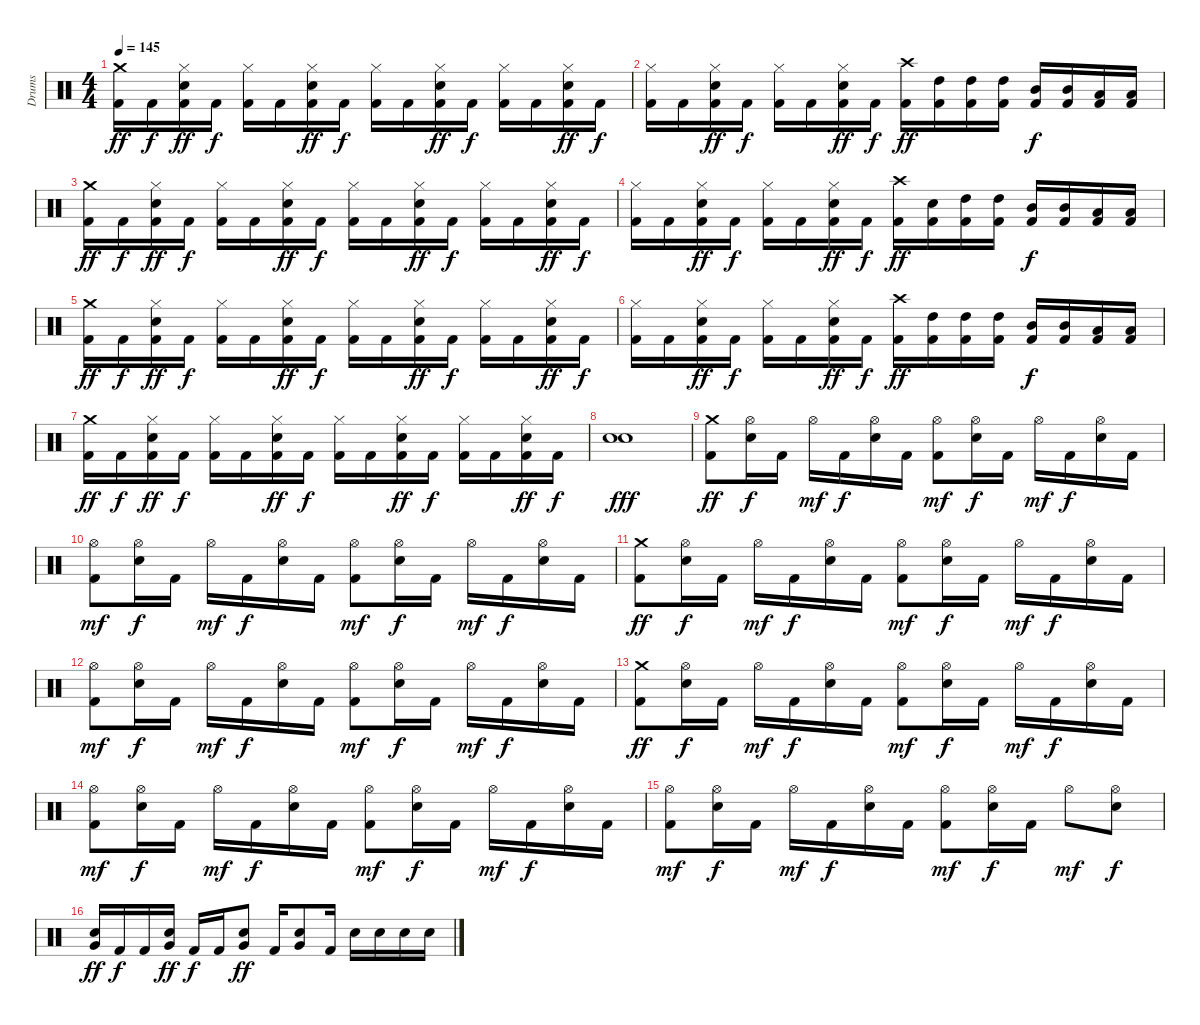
\track ("Drums" "Drums") {instrument percussion}
\staff {score}
\articulation defaults
\ts (4 4)
\tempo 145
\clef neutral
\ks c
("Crash medium (hit)" "Kick (hit) 2").16{dy ff} "Kick (hit) 2".16{dy f} ("Snare (hit) 2" "Hi-Hat (closed)" "Kick (hit) 2").16{dy ff} "Kick (hit) 2".16{dy f} ("Hi-Hat (closed)" "Kick (hit) 2").16 "Kick (hit) 2".16 ("Snare (hit) 2" "Hi-Hat (closed)" "Kick (hit) 2").16{dy ff} "Kick (hit) 2".16{dy f} ("Hi-Hat (closed)" "Kick (hit) 2").16 "Kick (hit) 2".16 ("Snare (hit) 2" "Hi-Hat (closed)" "Kick (hit) 2").16{dy ff} "Kick (hit) 2".16{dy f} ("Hi-Hat (closed)" "Kick (hit) 2").16 "Kick (hit) 2".16 ("Snare (hit) 2" "Hi-Hat (closed)" "Kick (hit) 2").16{dy ff} "Kick (hit) 2".16{dy f} |
("Hi-Hat (closed)" "Kick (hit) 2").16 "Kick (hit) 2".16 ("Hi-Hat (closed)" "Snare (hit) 2" "Kick (hit) 2").16{dy ff} "Kick (hit) 2".16{dy f} ("Hi-Hat (closed)" "Kick (hit) 2").16 "Kick (hit) 2".16 ("Hi-Hat (closed)" "Snare (hit) 2" "Kick (hit) 2").16{dy ff} "Kick (hit) 2".16{dy f} ("Crash high (hit)" "Kick (hit) 2").16{dy ff} ("High Tom (hit)" "Kick (hit) 2").16 ("High Tom (hit)" "Kick (hit) 2").16 ("High Tom (hit)" "Kick (hit) 2").16 ("Mid Tom (hit)" "Kick (hit) 2").16{dy f} ("Mid Tom (hit)" "Kick (hit) 2").16 ("Low Tom (hit)" "Kick (hit) 2").16 ("Low Tom (hit)" "Kick (hit) 2").16 |
("Crash medium (hit)" "Kick (hit) 2").16{dy ff} "Kick (hit) 2".16{dy f} ("Hi-Hat (closed)" "Snare (hit) 2" "Kick (hit) 2").16{dy ff} "Kick (hit) 2".16{dy f} ("Hi-Hat (closed)" "Kick (hit) 2").16 "Kick (hit) 2".16 ("Hi-Hat (closed)" "Snare (hit) 2" "Kick (hit) 2").16{dy ff} "Kick (hit) 2".16{dy f} ("Hi-Hat (closed)" "Kick (hit) 2").16 "Kick (hit) 2".16 ("Hi-Hat (closed)" "Snare (hit) 2" "Kick (hit) 2").16{dy ff} "Kick (hit) 2".16{dy f} ("Hi-Hat (closed)" "Kick (hit) 2").16 "Kick (hit) 2".16 ("Hi-Hat (closed)" "Snare (hit) 2" "Kick (hit) 2").16{dy ff} "Kick (hit) 2".16{dy f} |
("Hi-Hat (closed)" "Kick (hit) 2").16 "Kick (hit) 2".16 ("Hi-Hat (closed)" "Snare (hit) 2" "Kick (hit) 2").16{dy ff} "Kick (hit) 2".16{dy f} ("Hi-Hat (closed)" "Kick (hit) 2").16 "Kick (hit) 2".16 ("Hi-Hat (closed)" "Snare (hit) 2" "Kick (hit) 2").16{dy ff} "Kick (hit) 2".16{dy f} ("Crash high (hit)" "Kick (hit) 2").16{dy ff} ("Snare (hit) 2" "Kick (hit) 2").16 ("High Tom (hit)" "Kick (hit) 2").16 ("High Tom (hit)" "Kick (hit) 2").16 ("Mid Tom (hit)" "Kick (hit) 2").16{dy f} ("Mid Tom (hit)" "Kick (hit) 2").16 ("Low Tom (hit)" "Kick (hit) 2").16 ("Low Tom (hit)" "Kick (hit) 2").16 |
("Crash medium (hit)" "Kick (hit) 2").16{dy ff} "Kick (hit) 2".16{dy f} ("Snare (hit) 2" "Hi-Hat (closed)" "Kick (hit) 2").16{dy ff} "Kick (hit) 2".16{dy f} ("Hi-Hat (closed)" "Kick (hit) 2").16 "Kick (hit) 2".16 ("Snare (hit) 2" "Hi-Hat (closed)" "Kick (hit) 2").16{dy ff} "Kick (hit) 2".16{dy f} ("Hi-Hat (closed)" "Kick (hit) 2").16 "Kick (hit) 2".16 ("Snare (hit) 2" "Hi-Hat (closed)" "Kick (hit) 2").16{dy ff} "Kick (hit) 2".16{dy f} ("Hi-Hat (closed)" "Kick (hit) 2").16 "Kick (hit) 2".16 ("Snare (hit) 2" "Hi-Hat (closed)" "Kick (hit) 2").16{dy ff} "Kick (hit) 2".16{dy f} |
("Hi-Hat (closed)" "Kick (hit) 2").16 "Kick (hit) 2".16 ("Hi-Hat (closed)" "Snare (hit) 2" "Kick (hit) 2").16{dy ff} "Kick (hit) 2".16{dy f} ("Hi-Hat (closed)" "Kick (hit) 2").16 "Kick (hit) 2".16 ("Hi-Hat (closed)" "Snare (hit) 2" "Kick (hit) 2").16{dy ff} "Kick (hit) 2".16{dy f} ("Crash high (hit)" "Kick (hit) 2").16{dy ff} ("High Tom (hit)" "Kick (hit) 2").16 ("High Tom (hit)" "Kick (hit) 2").16 ("High Tom (hit)" "Kick (hit) 2").16 ("Mid Tom (hit)" "Kick (hit) 2").16{dy f} ("Mid Tom (hit)" "Kick (hit) 2").16 ("Low Tom (hit)" "Kick (hit) 2").16 ("Low Tom (hit)" "Kick (hit) 2").16 |
("Crash medium (hit)" "Kick (hit) 2").16{dy ff} "Kick (hit) 2".16{dy f} ("Hi-Hat (closed)" "Snare (hit) 2" "Kick (hit) 2").16{dy ff} "Kick (hit) 2".16{dy f} ("Hi-Hat (closed)" "Kick (hit) 2").16 "Kick (hit) 2".16 ("Hi-Hat (closed)" "Snare (hit) 2" "Kick (hit) 2").16{dy ff} "Kick (hit) 2".16{dy f} ("Hi-Hat (closed)" "Kick (hit) 2").16 "Kick (hit) 2".16 ("Hi-Hat (closed)" "Snare (hit) 2" "Kick (hit) 2").16{dy ff} "Kick (hit) 2".16{dy f} ("Hi-Hat (closed)" "Kick (hit) 2").16 "Kick (hit) 2".16 ("Hi-Hat (closed)" "Snare (hit) 2" "Kick (hit) 2").16{dy ff} "Kick (hit) 2".16{dy f} |
("Snare (hit) 2" "Snare (hit) 2").1{dy fff} |
("Kick (hit) 2" "Crash medium (hit)").8{dy ff} ("Snare (hit) 2" "Hi-Hat (open)").16{dy f} "Kick (hit) 2".16 "Hi-Hat (open)".16{dy mf} "Kick (hit) 2".16{dy f} ("Snare (hit) 2" "Hi-Hat (open)").16 "Kick (hit) 2".16 ("Kick (hit) 2" "Hi-Hat (open)").8{dy mf} ("Snare (hit) 2" "Hi-Hat (open)").16{dy f} "Kick (hit) 2".16 "Hi-Hat (open)".16{dy mf} "Kick (hit) 2".16{dy f} ("Snare (hit) 2" "Hi-Hat (open)").16 "Kick (hit) 2".16 |
("Kick (hit) 2" "Hi-Hat (open)").8{dy mf} ("Snare (hit) 2" "Hi-Hat (open)").16{dy f} "Kick (hit) 2".16 "Hi-Hat (open)".16{dy mf} "Kick (hit) 2".16{dy f} ("Snare (hit) 2" "Hi-Hat (open)").16 "Kick (hit) 2".16 ("Kick (hit) 2" "Hi-Hat (open)").8{dy mf} ("Snare (hit) 2" "Hi-Hat (open)").16{dy f} "Kick (hit) 2".16 "Hi-Hat (open)".16{dy mf} "Kick (hit) 2".16{dy f} ("Snare (hit) 2" "Hi-Hat (open)").16 "Kick (hit) 2".16 |
("Kick (hit) 2" "Crash medium (hit)").8{dy ff} ("Snare (hit) 2" "Hi-Hat (open)").16{dy f} "Kick (hit) 2".16 "Hi-Hat (open)".16{dy mf} "Kick (hit) 2".16{dy f} ("Snare (hit) 2" "Hi-Hat (open)").16 "Kick (hit) 2".16 ("Kick (hit) 2" "Hi-Hat (open)").8{dy mf} ("Snare (hit) 2" "Hi-Hat (open)").16{dy f} "Kick (hit) 2".16 "Hi-Hat (open)".16{dy mf} "Kick (hit) 2".16{dy f} ("Snare (hit) 2" "Hi-Hat (open)").16 "Kick (hit) 2".16 |
("Kick (hit) 2" "Hi-Hat (open)").8{dy mf} ("Snare (hit) 2" "Hi-Hat (open)").16{dy f} "Kick (hit) 2".16 "Hi-Hat (open)".16{dy mf} "Kick (hit) 2".16{dy f} ("Snare (hit) 2" "Hi-Hat (open)").16 "Kick (hit) 2".16 ("Kick (hit) 2" "Hi-Hat (open)").8{dy mf} ("Snare (hit) 2" "Hi-Hat (open)").16{dy f} "Kick (hit) 2".16 "Hi-Hat (open)".16{dy mf} "Kick (hit) 2".16{dy f} ("Snare (hit) 2" "Hi-Hat (open)").16 "Kick (hit) 2".16 |
("Kick (hit) 2" "Crash medium (hit)").8{dy ff} ("Snare (hit) 2" "Hi-Hat (open)").16{dy f} "Kick (hit) 2".16 "Hi-Hat (open)".16{dy mf} "Kick (hit) 2".16{dy f} ("Snare (hit) 2" "Hi-Hat (open)").16 "Kick (hit) 2".16 ("Kick (hit) 2" "Hi-Hat (open)").8{dy mf} ("Snare (hit) 2" "Hi-Hat (open)").16{dy f} "Kick (hit) 2".16 "Hi-Hat (open)".16{dy mf} "Kick (hit) 2".16{dy f} ("Snare (hit) 2" "Hi-Hat (open)").16 "Kick (hit) 2".16 |
("Kick (hit) 2" "Hi-Hat (open)").8{dy mf} ("Snare (hit) 2" "Hi-Hat (open)").16{dy f} "Kick (hit) 2".16 "Hi-Hat (open)".16{dy mf} "Kick (hit) 2".16{dy f} ("Snare (hit) 2" "Hi-Hat (open)").16 "Kick (hit) 2".16 ("Kick (hit) 2" "Hi-Hat (open)").8{dy mf} ("Snare (hit) 2" "Hi-Hat (open)").16{dy f} "Kick (hit) 2".16 "Hi-Hat (open)".16{dy mf} "Kick (hit) 2".16{dy f} ("Snare (hit) 2" "Hi-Hat (open)").16 "Kick (hit) 2".16 |
("Kick (hit) 2" "Hi-Hat (open)").8{dy mf} ("Snare (hit) 2" "Hi-Hat (open)").16{dy f} "Kick (hit) 2".16 "Hi-Hat (open)".16{dy mf} "Kick (hit) 2".16{dy f} ("Snare (hit) 2" "Hi-Hat (open)").16 "Kick (hit) 2".16 ("Kick (hit) 2" "Hi-Hat (open)").8{dy mf} ("Snare (hit) 2" "Hi-Hat (open)").16{dy f} "Kick (hit) 2".16 "Hi-Hat (open)".8{dy mf} ("Snare (hit) 2" "Hi-Hat (open)").8{dy f} |
("Very Low Tom (hit)" "Snare (hit) 2").16{dy ff} "Kick (hit) 2".16{dy f} "Kick (hit) 2".16 ("Very Low Tom (hit)" "Snare (hit) 2").16{dy ff} "Kick (hit) 2".16{dy f} "Kick (hit) 2".16 ("Very Low Tom (hit)" "Snare (hit) 2").8{dy ff} "Kick (hit) 2".16 ("Very Low Tom (hit)" "Snare (hit) 2").8 "Kick (hit) 2".16 "Snare (hit) 2".16 "Snare (hit) 2".16 "Snare (hit) 2".16 "Snare (hit) 2".16
